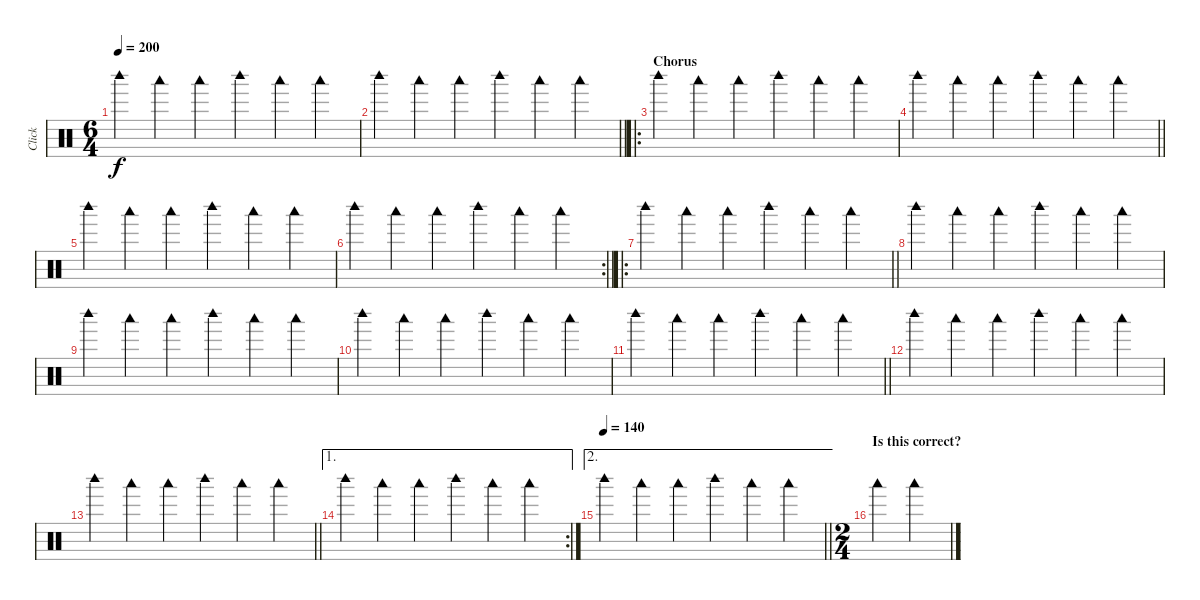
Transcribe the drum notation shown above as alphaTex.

\track ("Click" "Click") {mute instrument percussion}
\staff {score}
\articulation defaults
\ts (6 4)
\tempo 200
\clef neutral
\ks c "Woodblock high (hit)".4{dy f} "Woodblock low (hit)".4 "Woodblock low (hit)".4 "Woodblock high (hit)".4 "Woodblock low (hit)".4 "Woodblock low (hit)".4
|
\barLineRight lightlight "Woodblock high (hit)".4 "Woodblock low (hit)".4 "Woodblock low (hit)".4 "Woodblock high (hit)".4 "Woodblock low (hit)".4 "Woodblock low (hit)".4
|
\ro
\section ("" "Chorus")
"Woodblock high (hit)".4 "Woodblock low (hit)".4 "Woodblock low (hit)".4 "Woodblock high (hit)".4 "Woodblock low (hit)".4 "Woodblock low (hit)".4 |
\barLineRight lightlight "Woodblock high (hit)".4 "Woodblock low (hit)".4 "Woodblock low (hit)".4 "Woodblock high (hit)".4 "Woodblock low (hit)".4 "Woodblock low (hit)".4
|
"Woodblock high (hit)".4 "Woodblock low (hit)".4 "Woodblock low (hit)".4 "Woodblock high (hit)".4 "Woodblock low (hit)".4 "Woodblock low (hit)".4 |
\rc 2
\barLineRight lightlight "Woodblock high (hit)".4 "Woodblock low (hit)".4 "Woodblock low (hit)".4 "Woodblock high (hit)".4 "Woodblock low (hit)".4 "Woodblock low (hit)".4
|
\ro
\barLineRight lightlight "Woodblock high (hit)".4 "Woodblock low (hit)".4 "Woodblock low (hit)".4 "Woodblock high (hit)".4 "Woodblock low (hit)".4 "Woodblock low (hit)".4
|
"Woodblock high (hit)".4 "Woodblock low (hit)".4 "Woodblock low (hit)".4 "Woodblock high (hit)".4 "Woodblock low (hit)".4 "Woodblock low (hit)".4 |
"Woodblock high (hit)".4 "Woodblock low (hit)".4 "Woodblock low (hit)".4 "Woodblock high (hit)".4 "Woodblock low (hit)".4 "Woodblock low (hit)".4 |
"Woodblock high (hit)".4 "Woodblock low (hit)".4 "Woodblock low (hit)".4 "Woodblock high (hit)".4 "Woodblock low (hit)".4 "Woodblock low (hit)".4 |
\barLineRight lightlight "Woodblock high (hit)".4 "Woodblock low (hit)".4 "Woodblock low (hit)".4 "Woodblock high (hit)".4 "Woodblock low (hit)".4 "Woodblock low (hit)".4
|
"Woodblock high (hit)".4 "Woodblock low (hit)".4 "Woodblock low (hit)".4 "Woodblock high (hit)".4 "Woodblock low (hit)".4 "Woodblock low (hit)".4 |
\barLineRight lightlight "Woodblock high (hit)".4 "Woodblock low (hit)".4 "Woodblock low (hit)".4 "Woodblock high (hit)".4 "Woodblock low (hit)".4 "Woodblock low (hit)".4
|
\ae 1
\rc 2 "Woodblock high (hit)".4 "Woodblock low (hit)".4 "Woodblock low (hit)".4 "Woodblock high (hit)".4 "Woodblock low (hit)".4 "Woodblock low (hit)".4
|
\ae 2
\tempo 140
\barLineRight lightlight "Woodblock high (hit)".4 "Woodblock low (hit)".4 "Woodblock low (hit)".4 "Woodblock high (hit)".4 "Woodblock low (hit)".4 "Woodblock low (hit)".4
|
\ts (2 4)
\section ("" "Is this correct?")
"Woodblock low (hit)".4 "Woodblock low (hit)".4
